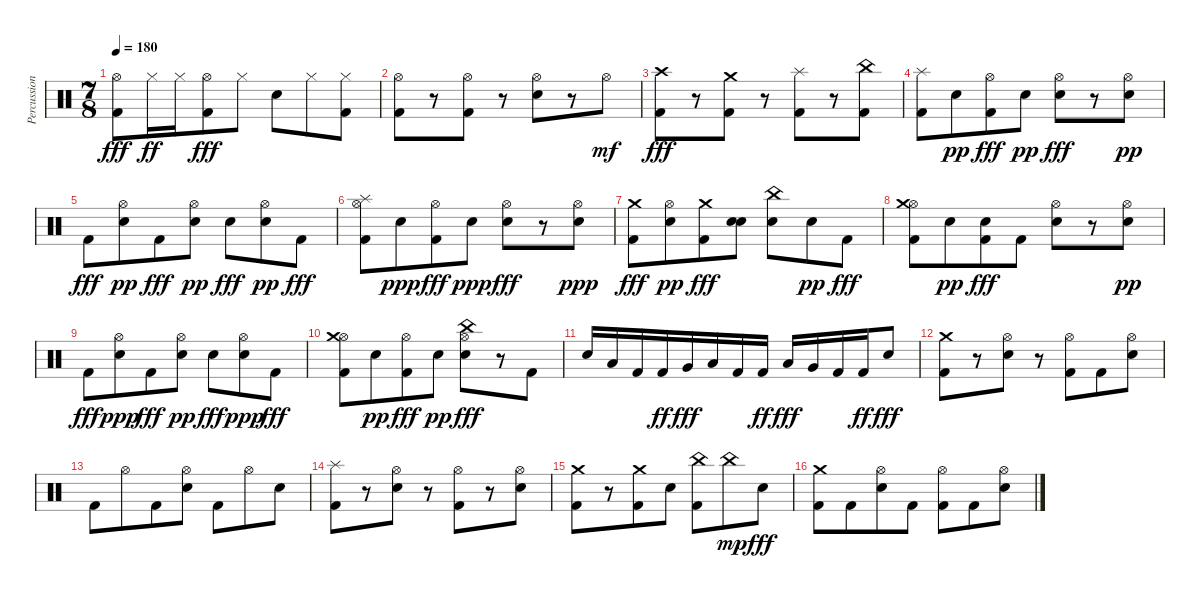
\track ("Percussion" "Percussion") {instrument percussion}
\staff {score}
\articulation defaults
\ts (7 8)
\tempo 180
\clef neutral
\ks c
("Hi-Hat (open)" "Kick (hit) 2").8{dy fff} "Hi-Hat (closed)".16{dy ff} "Hi-Hat (closed)".16 ("Hi-Hat (open)" "Kick (hit) 2").8{dy fff} "Hi-Hat (closed)".8 "Snare (hit) 2".8 "Hi-Hat (closed)".8 ("Kick (hit) 2" "Hi-Hat (closed)").8 |
("Kick (hit) 2" "Hi-Hat (open)").8 r.8 ("Kick (hit) 2" "Hi-Hat (open)").8 r.8 ("Hi-Hat (open)" "Snare (hit) 2").8 r.8 "Hi-Hat (open)".8{dy mf} |
("Kick (hit) 2" "Crash high (hit)").8{dy fff} r.8 ("Kick (hit) 2" "Crash medium (hit)").8 r.8 ("Kick (hit) 2" "Splash (hit)").8 r.8 ("Kick (hit) 2" "China (hit)").8 |
("Kick (hit) 2" "Splash (hit)").8 "Snare (hit) 2".8{dy pp} ("Hi-Hat (open)" "Kick (hit) 2").8{dy fff} "Snare (hit) 2".8{dy pp} ("Hi-Hat (open)" "Snare (hit) 2").8{dy fff} r.8 ("Hi-Hat (open)" "Snare (hit) 2").8{dy pp} |
"Kick (hit) 2".8{dy fff} ("Hi-Hat (open)" "Snare (hit) 2").8{dy pp} "Kick (hit) 2".8{dy fff} ("Hi-Hat (open)" "Snare (hit) 2").8{dy pp} "Snare (hit) 2".8{dy fff} ("Hi-Hat (open)" "Snare (hit) 2").8{dy pp} "Kick (hit) 2".8{dy fff} |
("Hi-Hat (open)" "Kick (hit) 2" "Splash (hit)").8 "Snare (hit) 2".8{dy ppp} ("Hi-Hat (open)" "Kick (hit) 2").8{dy fff} "Snare (hit) 2".8{dy ppp} ("Hi-Hat (open)" "Snare (hit) 2").8{dy fff} r.8 ("Hi-Hat (open)" "Snare (hit) 2").8{dy ppp} |
("Kick (hit) 2" "Crash medium (hit)").8{dy fff} ("Hi-Hat (open)" "Snare (hit) 2").8{dy pp} ("Kick (hit) 2" "Crash medium (hit)").8{dy fff} ("Snare (hit) 2" "Snare (hit)").8 ("Snare (hit) 2" "China (hit)").8 "Snare (hit) 2".8{dy pp} "Kick (hit) 2".8{dy fff} |
("Hi-Hat (open)" "Kick (hit) 2" "Crash medium (hit)").8 "Snare (hit) 2".8{dy pp} ("Kick (hit) 2" "Snare (hit)").8{dy fff} "Kick (hit) 2".8 ("Hi-Hat (open)" "Snare (hit) 2").8 r.8 ("Hi-Hat (open)" "Snare (hit) 2").8{dy pp} |
"Kick (hit) 2".8{dy fff} ("Hi-Hat (open)" "Snare (hit) 2").8{dy ppp} "Kick (hit) 2".8{dy fff} ("Hi-Hat (open)" "Snare (hit) 2").8{dy pp} "Snare (hit) 2".8{dy fff} ("Hi-Hat (open)" "Snare (hit) 2").8{dy ppp} "Kick (hit) 2".8{dy fff} |
("Hi-Hat (open)" "Kick (hit) 2" "Crash medium (hit)").8 "Snare (hit) 2".8{dy pp} ("Hi-Hat (open)" "Kick (hit) 2").8{dy fff} "Snare (hit) 2".8{dy pp} ("Hi-Hat (open)" "Snare (hit) 2" "China (hit)").8{dy fff} r.8 "Kick (hit) 2".8 |
"Snare (hit) 2".16 "Low Floor Tom (hit)".16 "Kick (hit) 2".16 "Kick (hit) 2".16{dy ff} "Very Low Tom (hit)".16{dy fff} "Low Floor Tom (hit)".16 "Kick (hit) 2".16 "Kick (hit) 2".16{dy ff} "Low Tom (hit)".16{dy fff} "Very Low Tom (hit)".16 "Kick (hit) 2".16 "Kick (hit) 2".16{dy ff} "Snare (hit) 2".8{dy fff} |
("Kick (hit) 2" "Crash medium (hit)").8 r.8 ("Hi-Hat (open)" "Snare (hit) 2").8 r.8 ("Hi-Hat (open)" "Kick (hit) 2").8 "Kick (hit) 2".8 ("Hi-Hat (open)" "Snare (hit) 2").8 |
"Kick (hit) 2".8 "Hi-Hat (open)".8 "Kick (hit) 2".8 ("Hi-Hat (open)" "Snare (hit) 2").8 "Kick (hit) 2".8 "Hi-Hat (open)".8 "Snare (hit) 2".8 |
("Kick (hit) 2" "Splash (hit)").8 r.8 ("Hi-Hat (open)" "Snare (hit) 2").8 r.8 ("Hi-Hat (open)" "Kick (hit) 2").8 r.8 ("Hi-Hat (open)" "Snare (hit) 2").8 |
("Kick (hit) 2" "Crash medium (hit)").8 r.8 ("Kick (hit) 2" "Crash medium (hit)").8 "Snare (hit) 2".8 ("Kick (hit) 2" "China (hit)").8 "China (hit)".8{dy mp} "Snare (hit) 2".8{dy fff} |
("Kick (hit) 2" "Crash medium (hit)").8 "Kick (hit) 2".8 ("Hi-Hat (open)" "Snare (hit) 2").8 "Kick (hit) 2".8 ("Hi-Hat (open)" "Kick (hit) 2").8 "Kick (hit) 2".8 ("Hi-Hat (open)" "Snare (hit) 2").8
